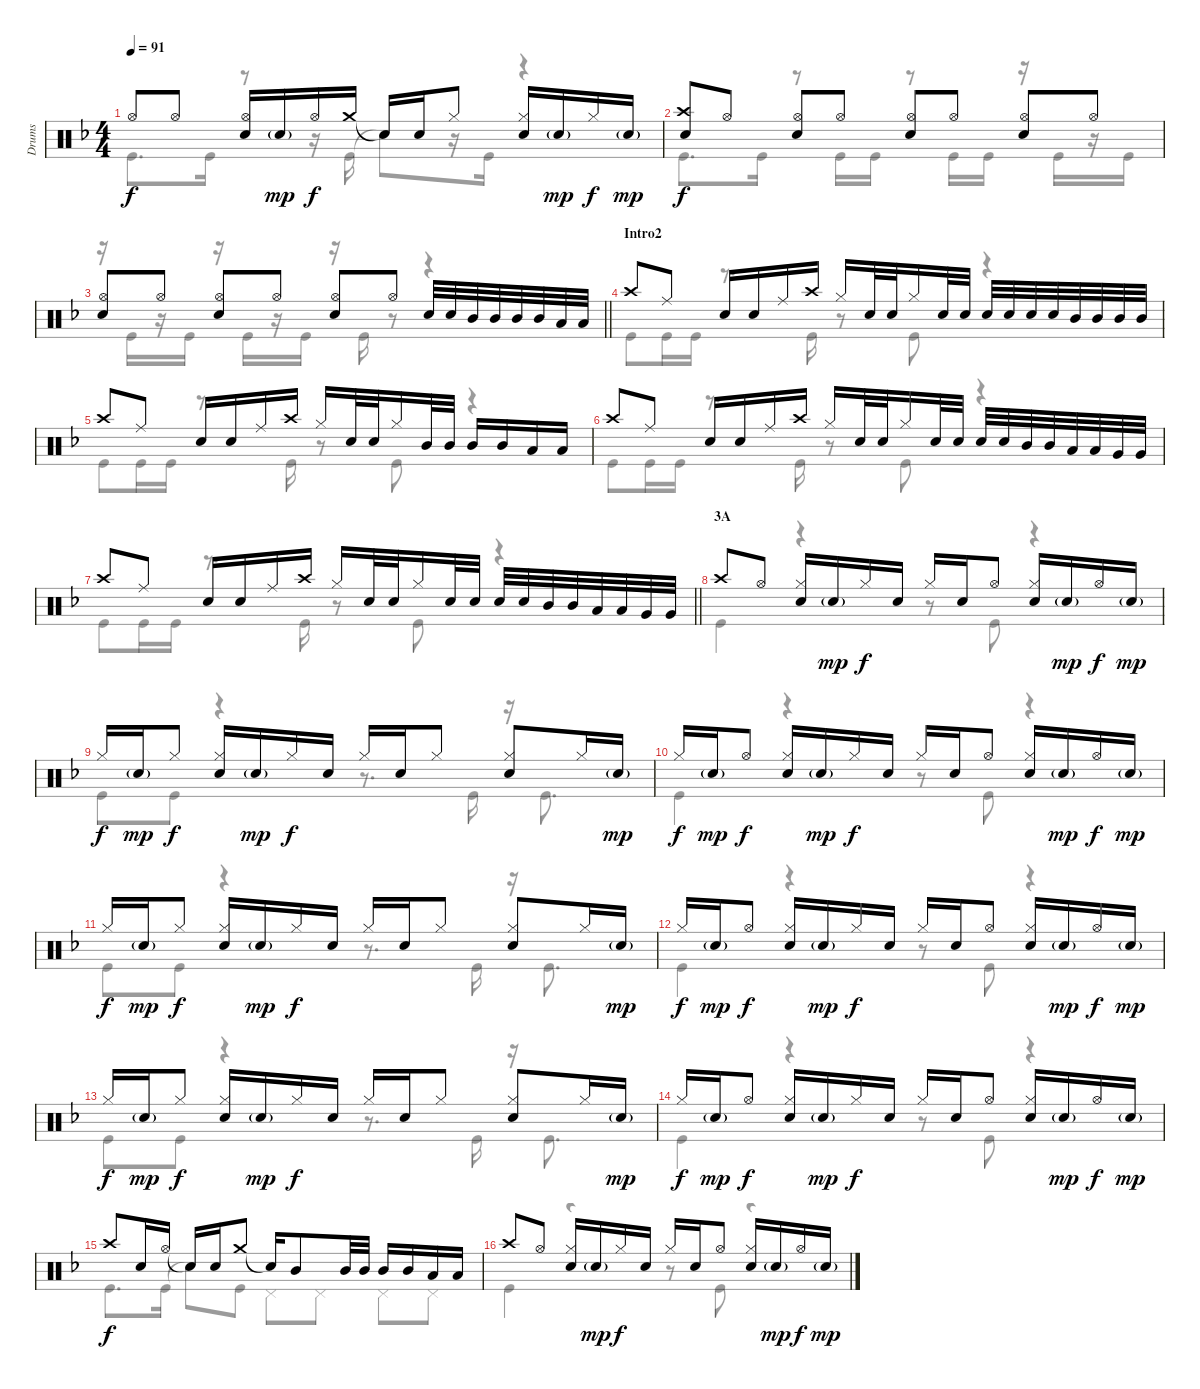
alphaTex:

\track ("Drums" "Drums") {instrument percussion}
\staff {score}
\articulation defaults
\voice
\ts (4 4)
\tempo 91
\clef neutral
\ks f "Hi-Hat (open)".8{dy f} "Hi-Hat (open)".8
("Hi-Hat (open)" "Snare (hit) 2").16 "Snare (hit) 2"{g}.16{dy mp} "Hi-Hat (open)".16{dy f} "Crash medium (hit)".16 "Snare (hit)"{t}.16 "Snare (hit) 2".16 "Hi-Hat (closed)".8 ("Hi-Hat (closed)" "Snare (hit) 2").16 "Snare (hit) 2"{g}.16{dy mp} "Hi-Hat (closed)".16{dy f} "Snare (hit) 2"{g}.16{dy mp} |
("Crash high (hit)" "Snare (hit) 2").8{dy f} "Hi-Hat (open)".8 ("Hi-Hat (open)" "Snare (hit) 2").8 "Hi-Hat (open)".8 ("Hi-Hat (open)" "Snare (hit) 2").8 "Hi-Hat (open)".8 ("Hi-Hat (open)" "Snare (hit) 2").8 "Hi-Hat (open)".8 |
\barLineRight lightlight
("Hi-Hat (open)" "Snare (hit) 2").8 "Hi-Hat (open)".8 ("Hi-Hat (open)" "Snare (hit) 2").8 "Hi-Hat (open)".8 ("Hi-Hat (open)" "Snare (hit) 2").8 "Hi-Hat (open)".8 "Snare (hit) 2".32 "Snare (hit) 2".32 "Mid Tom (hit)".32 "Mid Tom (hit)".32 "Mid Tom (hit)".32 "Mid Tom (hit)".32 "Low Tom (hit)".32 "Low Tom (hit)".32 |
\section ("" "Intro2")
"Crash high (hit)".8 "Ride (middle)".8 "Snare (hit) 2".16 "Snare (hit) 2".16 "Ride (middle)".16 "Crash high (hit)".16 "Hi-Hat (closed)".16 "Snare (hit) 2".32 "Snare (hit) 2".32 "Hi-Hat (closed)".16 "Snare (hit) 2".32 "Snare (hit) 2".32 "Snare (hit) 2".32 "Snare (hit) 2".32 "Snare (hit) 2".32 "Snare (hit) 2".32 "Mid Tom (hit)".32 "Mid Tom (hit)".32 "Mid Tom (hit)".32 "Mid Tom (hit)".32 |
"Crash high (hit)".8 "Ride (middle)".8 "Snare (hit) 2".16 "Snare (hit) 2".16 "Ride (middle)".16 "Crash high (hit)".16 "Hi-Hat (closed)".16 "Snare (hit) 2".32 "Snare (hit) 2".32 "Hi-Hat (closed)".16 "Mid Tom (hit)".32 "Mid Tom (hit)".32 "Mid Tom (hit)".16 "Mid Tom (hit)".16 "Low Tom (hit)".16 "Low Tom (hit)".16 |
"Crash high (hit)".8 "Ride (middle)".8 "Snare (hit) 2".16 "Snare (hit) 2".16 "Ride (middle)".16 "Crash high (hit)".16 "Hi-Hat (closed)".16 "Snare (hit) 2".32 "Snare (hit) 2".32 "Hi-Hat (closed)".16 "Snare (hit) 2".32 "Snare (hit) 2".32 "Snare (hit) 2".32 "Snare (hit) 2".32 "Mid Tom (hit)".32 "Mid Tom (hit)".32 "Low Tom (hit)".32 "Low Tom (hit)".32 "Very Low Tom (hit)".32 "Very Low Tom (hit)".32 |
\barLineRight lightlight "Crash high (hit)".8 "Ride (middle)".8 "Snare (hit) 2".16 "Snare (hit) 2".16 "Ride (middle)".16 "Crash high (hit)".16 "Hi-Hat (closed)".16 "Snare (hit) 2".32 "Snare (hit) 2".32 "Hi-Hat (closed)".16 "Snare (hit) 2".32 "Snare (hit) 2".32 "Snare (hit) 2".32 "Snare (hit) 2".32 "Mid Tom (hit)".32 "Mid Tom (hit)".32 "Low Tom (hit)".32 "Low Tom (hit)".32 "Very Low Tom (hit)".32 "Very Low Tom (hit)".32
|
\section ("" "3A")
"Crash high (hit)".8 "Hi-Hat (open)".8 ("Hi-Hat (closed)" "Snare (hit) 2").16 "Snare (hit) 2"{g}.16{dy mp} "Hi-Hat (closed)".16{dy f} "Snare (hit) 2".16 "Hi-Hat (closed)".16 "Snare (hit) 2".16 "Hi-Hat (open)".8 ("Hi-Hat (closed)" "Snare (hit) 2").16 "Snare (hit) 2"{g}.16{dy mp} "Hi-Hat (open)".16{dy f} "Snare (hit) 2"{g}.16{dy mp} |
"Hi-Hat (closed)".16{dy f} "Snare (hit) 2"{g}.16{dy mp} "Hi-Hat (closed)".8{dy f} ("Hi-Hat (closed)" "Snare (hit) 2").16 "Snare (hit) 2"{g}.16{dy mp} "Hi-Hat (closed)".16{dy f} "Snare (hit) 2".16 "Hi-Hat (closed)".16 "Snare (hit) 2".16 "Hi-Hat (closed)".8 ("Hi-Hat (closed)" "Snare (hit) 2").8 "Hi-Hat (closed)".16 "Snare (hit) 2"{g}.16{dy mp} |
"Hi-Hat (closed)".16{dy f} "Snare (hit) 2"{g}.16{dy mp} "Hi-Hat (open)".8{dy f} ("Hi-Hat (closed)" "Snare (hit) 2").16 "Snare (hit) 2"{g}.16{dy mp} "Hi-Hat (closed)".16{dy f} "Snare (hit) 2".16 "Hi-Hat (closed)".16 "Snare (hit) 2".16 "Hi-Hat (open)".8 ("Hi-Hat (closed)" "Snare (hit) 2").16 "Snare (hit) 2"{g}.16{dy mp} "Hi-Hat (open)".16{dy f} "Snare (hit) 2"{g}.16{dy mp} |
"Hi-Hat (closed)".16{dy f} "Snare (hit) 2"{g}.16{dy mp} "Hi-Hat (closed)".8{dy f} ("Hi-Hat (closed)" "Snare (hit) 2").16 "Snare (hit) 2"{g}.16{dy mp} "Hi-Hat (closed)".16{dy f} "Snare (hit) 2".16 "Hi-Hat (closed)".16 "Snare (hit) 2".16 "Hi-Hat (closed)".8 ("Hi-Hat (closed)" "Snare (hit) 2").8 "Hi-Hat (closed)".16 "Snare (hit) 2"{g}.16{dy mp} |
"Hi-Hat (closed)".16{dy f} "Snare (hit) 2"{g}.16{dy mp} "Hi-Hat (open)".8{dy f} ("Hi-Hat (closed)" "Snare (hit) 2").16 "Snare (hit) 2"{g}.16{dy mp} "Hi-Hat (closed)".16{dy f} "Snare (hit) 2".16 "Hi-Hat (closed)".16 "Snare (hit) 2".16 "Hi-Hat (open)".8 ("Hi-Hat (closed)" "Snare (hit) 2").16 "Snare (hit) 2"{g}.16{dy mp} "Hi-Hat (open)".16{dy f} "Snare (hit) 2"{g}.16{dy mp} |
"Hi-Hat (closed)".16{dy f} "Snare (hit) 2"{g}.16{dy mp} "Hi-Hat (closed)".8{dy f} ("Hi-Hat (closed)" "Snare (hit) 2").16 "Snare (hit) 2"{g}.16{dy mp} "Hi-Hat (closed)".16{dy f} "Snare (hit) 2".16 "Hi-Hat (closed)".16 "Snare (hit) 2".16 "Hi-Hat (closed)".8 ("Hi-Hat (closed)" "Snare (hit) 2").8 "Hi-Hat (closed)".16 "Snare (hit) 2"{g}.16{dy mp} |
"Hi-Hat (closed)".16{dy f} "Snare (hit) 2"{g}.16{dy mp} "Hi-Hat (open)".8{dy f} ("Hi-Hat (closed)" "Snare (hit) 2").16 "Snare (hit) 2"{g}.16{dy mp} "Hi-Hat (closed)".16{dy f} "Snare (hit) 2".16 "Hi-Hat (closed)".16 "Snare (hit) 2".16 "Hi-Hat (open)".8 ("Hi-Hat (closed)" "Snare (hit) 2").16 "Snare (hit) 2"{g}.16{dy mp} "Hi-Hat (open)".16{dy f} "Snare (hit) 2"{g}.16{dy mp} |
"Crash high (hit)".8{dy f} "Snare (hit) 2".16 "Hi-Hat (open)".16 "Snare (hit)"{t}.16 "Snare (hit) 2".16 "Crash medium (hit)".8 "Snare (hit)"{t}.16 "Mid Tom (hit)".8 "Mid Tom (hit)".32 "Mid Tom (hit)".32 "Mid Tom (hit)".16 "Mid Tom (hit)".16 "Low Tom (hit)".16 "Low Tom (hit)".16 |
"Crash high (hit)".8 "Hi-Hat (open)".8 ("Hi-Hat (closed)" "Snare (hit) 2").16 "Snare (hit) 2"{g}.16{dy mp} "Hi-Hat (closed)".16{dy f} "Snare (hit) 2".16 "Hi-Hat (closed)".16 "Snare (hit) 2".16 "Hi-Hat (open)".8 ("Hi-Hat (closed)" "Snare (hit) 2").16 "Snare (hit) 2"{g}.16{dy mp} "Hi-Hat (open)".16{dy f} "Snare (hit) 2"{g}.16{dy mp}
\voice
\clef neutral
\ottava regular
\simile none
\ks f "Kick (hit)".8{d dy f} "Kick (hit)".16
r.8 r.16 "Kick (hit)".16 "Snare (hit)"{t}.8 r.16 "Kick (hit)".16 r.4 |
"Kick (hit)".8{d} "Kick (hit)".16 r.8 "Kick (hit)".16 "Kick (hit)".16 r.8 "Kick (hit)".16 "Kick (hit)".16 r.16 "Kick (hit)".16 r.16 "Kick (hit)".16 |
\barLineRight lightlight
r.16 "Kick (hit)".16 r.16 "Kick (hit)".16 r.16 "Kick (hit)".16 r.16 "Kick (hit)".16 r.16 "Kick (hit)".16 r.8 r.4 |
"Kick (hit)".8 "Kick (hit)".16 "Kick (hit)".16 r.8{d} "Kick (hit)".16 r.8 "Kick (hit)".8 r.4 |
"Kick (hit)".8 "Kick (hit)".16 "Kick (hit)".16 r.8{d} "Kick (hit)".16 r.8 "Kick (hit)".8 r.4 |
"Kick (hit)".8 "Kick (hit)".16 "Kick (hit)".16 r.8{d} "Kick (hit)".16 r.8 "Kick (hit)".8 r.4 |
\barLineRight lightlight "Kick (hit)".8 "Kick (hit)".16 "Kick (hit)".16
r.8{d} "Kick (hit)".16 r.8 "Kick (hit)".8 r.4 |
"Kick (hit)".4 r.4 r.8 "Kick (hit)".8 r.4 |
"Kick (hit)".8 "Kick (hit)".8 r.4 r.8{d} "Kick (hit)".16 r.16 "Kick (hit)".8{d} |
"Kick (hit)".4 r.4 r.8 "Kick (hit)".8 r.4 |
"Kick (hit)".8 "Kick (hit)".8 r.4 r.8{d} "Kick (hit)".16 r.16 "Kick (hit)".8{d} |
"Kick (hit)".4 r.4 r.8 "Kick (hit)".8 r.4 |
"Kick (hit)".8 "Kick (hit)".8 r.4 r.8{d} "Kick (hit)".16 r.16 "Kick (hit)".8{d} |
"Kick (hit)".4 r.4 r.8 "Kick (hit)".8 r.4 |
"Kick (hit)".8{d} "Kick (hit)".16 "Snare (hit)"{t}.8 "Kick (hit)".8 "Pedal Hi-Hat (hit)".8 "Pedal Hi-Hat (hit)".8 "Pedal Hi-Hat (hit)".8 "Pedal Hi-Hat (hit)".8 |
"Kick (hit)".4 r.4 r.8 "Kick (hit)".8 r.4
